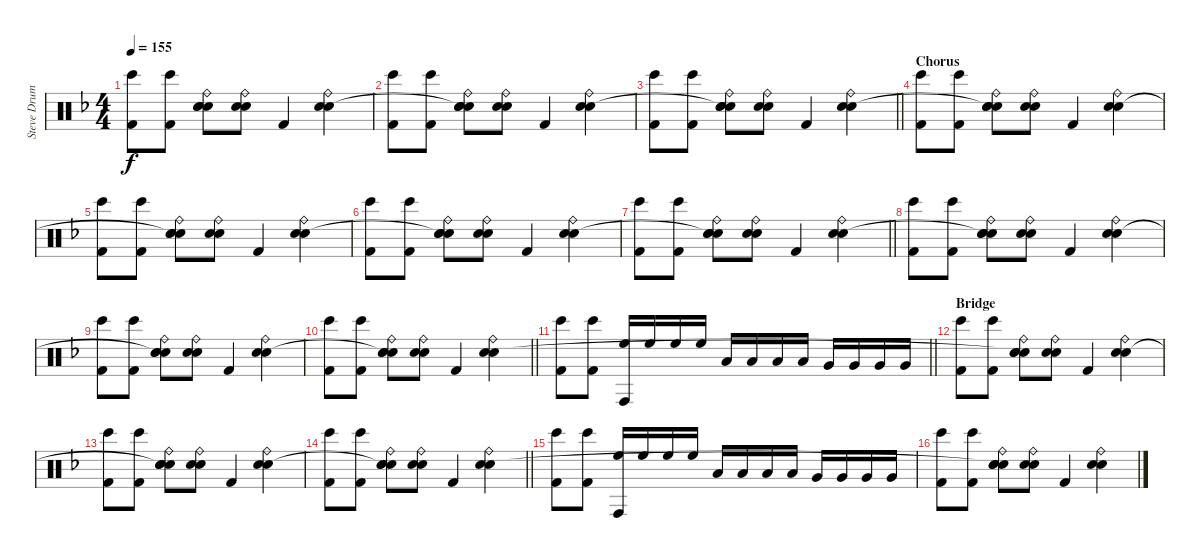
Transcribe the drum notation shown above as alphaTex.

\track ("Steve Drums" "Steve Drum") {instrument percussion}
\staff {score}
\articulation defaults
\ts (4 4)
\tempo 155
\clef neutral
\ks f
("Bongo High (hit)" "Kick (hit) 2").8{dy f} ("Bongo High (hit)" "Kick (hit) 2").8 ("Ride (bell)" "Snare (hit) 2" "Snare (hit)"{t} "Electric Snare (hit)").8 ("Ride (bell)" "Snare (hit) 2" "Electric Snare (hit)").8 "Kick (hit) 2".4 ("Ride (bell)" "Snare (hit) 2" "Electric Snare (hit)").4 |
("Bongo High (hit)" "Kick (hit) 2").8 ("Bongo High (hit)" "Kick (hit) 2").8 ("Ride (bell)" "Snare (hit) 2" "Snare (hit)"{t} "Electric Snare (hit)").8 ("Ride (bell)" "Snare (hit) 2" "Electric Snare (hit)").8 "Kick (hit) 2".4 ("Ride (bell)" "Snare (hit) 2" "Electric Snare (hit)").4 |
\barLineRight lightlight
("Bongo High (hit)" "Kick (hit) 2").8 ("Bongo High (hit)" "Kick (hit) 2").8 ("Ride (bell)" "Snare (hit) 2" "Snare (hit)"{t} "Electric Snare (hit)").8 ("Ride (bell)" "Snare (hit) 2" "Electric Snare (hit)").8 "Kick (hit) 2".4 ("Ride (bell)" "Snare (hit) 2" "Electric Snare (hit)").4 |
\section ("" "Chorus")
("Bongo High (hit)" "Kick (hit) 2").8 ("Bongo High (hit)" "Kick (hit) 2").8 ("Ride (bell)" "Snare (hit) 2" "Snare (hit)"{t} "Electric Snare (hit)").8 ("Ride (bell)" "Snare (hit) 2" "Electric Snare (hit)").8 "Kick (hit) 2".4 ("Ride (bell)" "Snare (hit) 2" "Electric Snare (hit)").4 |
("Bongo High (hit)" "Kick (hit) 2").8 ("Bongo High (hit)" "Kick (hit) 2").8 ("Ride (bell)" "Snare (hit) 2" "Snare (hit)"{t} "Electric Snare (hit)").8 ("Ride (bell)" "Snare (hit) 2" "Electric Snare (hit)").8 "Kick (hit) 2".4 ("Ride (bell)" "Snare (hit) 2" "Electric Snare (hit)").4 |
("Bongo High (hit)" "Kick (hit) 2").8 ("Bongo High (hit)" "Kick (hit) 2").8 ("Ride (bell)" "Snare (hit) 2" "Snare (hit)"{t} "Electric Snare (hit)").8 ("Ride (bell)" "Snare (hit) 2" "Electric Snare (hit)").8 "Kick (hit) 2".4 ("Ride (bell)" "Snare (hit) 2" "Electric Snare (hit)").4 |
\barLineRight lightlight
("Bongo High (hit)" "Kick (hit) 2").8 ("Bongo High (hit)" "Kick (hit) 2").8 ("Ride (bell)" "Snare (hit) 2" "Snare (hit)"{t} "Electric Snare (hit)").8 ("Ride (bell)" "Snare (hit) 2" "Electric Snare (hit)").8 "Kick (hit) 2".4 ("Ride (bell)" "Snare (hit) 2" "Electric Snare (hit)").4 |
("Bongo High (hit)" "Kick (hit) 2").8 ("Bongo High (hit)" "Kick (hit) 2").8 ("Ride (bell)" "Snare (hit) 2" "Snare (hit)"{t} "Electric Snare (hit)").8 ("Ride (bell)" "Snare (hit) 2" "Electric Snare (hit)").8 "Kick (hit) 2".4 ("Ride (bell)" "Snare (hit) 2" "Electric Snare (hit)").4 |
("Bongo High (hit)" "Kick (hit) 2").8 ("Bongo High (hit)" "Kick (hit) 2").8 ("Ride (bell)" "Snare (hit) 2" "Snare (hit)"{t} "Electric Snare (hit)").8 ("Ride (bell)" "Snare (hit) 2" "Electric Snare (hit)").8 "Kick (hit) 2".4 ("Ride (bell)" "Snare (hit) 2" "Electric Snare (hit)").4 |
\barLineRight lightlight
("Bongo High (hit)" "Kick (hit) 2").8 ("Bongo High (hit)" "Kick (hit) 2").8 ("Ride (bell)" "Snare (hit) 2" "Snare (hit)"{t} "Electric Snare (hit)").8 ("Ride (bell)" "Snare (hit) 2" "Electric Snare (hit)").8 "Kick (hit) 2".4 ("Ride (bell)" "Snare (hit) 2" "Electric Snare (hit)").4 |
\barLineRight lightlight
("Bongo High (hit)" "Kick (hit) 2").8 ("Bongo High (hit)" "Kick (hit) 2").8 ("Conga high (hit)" "High Floor Tom (hit)").16 "High Floor Tom (hit)".16 "High Floor Tom (hit)".16 "High Floor Tom (hit)".16 "Low Tom (hit)".16 "Low Tom (hit)".16 "Low Tom (hit)".16 "Low Tom (hit)".16 "Very Low Tom (hit)".16 "Very Low Tom (hit)".16 "Very Low Tom (hit)".16 "Very Low Tom (hit)".16 |
\section ("" "Bridge")
("Bongo High (hit)" "Kick (hit) 2").8 ("Bongo High (hit)" "Kick (hit) 2").8 ("Ride (bell)" "Snare (hit) 2" "Snare (hit)"{t} "Electric Snare (hit)").8 ("Ride (bell)" "Snare (hit) 2" "Electric Snare (hit)").8 "Kick (hit) 2".4 ("Ride (bell)" "Snare (hit) 2" "Electric Snare (hit)").4 |
("Bongo High (hit)" "Kick (hit) 2").8 ("Bongo High (hit)" "Kick (hit) 2").8 ("Ride (bell)" "Snare (hit) 2" "Snare (hit)"{t} "Electric Snare (hit)").8 ("Ride (bell)" "Snare (hit) 2" "Electric Snare (hit)").8 "Kick (hit) 2".4 ("Ride (bell)" "Snare (hit) 2" "Electric Snare (hit)").4 |
\barLineRight lightlight
("Bongo High (hit)" "Kick (hit) 2").8 ("Bongo High (hit)" "Kick (hit) 2").8 ("Ride (bell)" "Snare (hit) 2" "Snare (hit)"{t} "Electric Snare (hit)").8 ("Ride (bell)" "Snare (hit) 2" "Electric Snare (hit)").8 "Kick (hit) 2".4 ("Ride (bell)" "Snare (hit) 2" "Electric Snare (hit)").4 |
("Bongo High (hit)" "Kick (hit) 2").8 ("Bongo High (hit)" "Kick (hit) 2").8 ("Conga high (hit)" "High Floor Tom (hit)").16 "High Floor Tom (hit)".16 "High Floor Tom (hit)".16 "High Floor Tom (hit)".16 "Low Tom (hit)".16 "Low Tom (hit)".16 "Low Tom (hit)".16 "Low Tom (hit)".16 "Very Low Tom (hit)".16 "Very Low Tom (hit)".16 "Very Low Tom (hit)".16 "Very Low Tom (hit)".16 |
("Bongo High (hit)" "Kick (hit) 2").8 ("Bongo High (hit)" "Kick (hit) 2").8 ("Ride (bell)" "Snare (hit) 2" "Snare (hit)"{t} "Electric Snare (hit)").8 ("Ride (bell)" "Snare (hit) 2" "Electric Snare (hit)").8 "Kick (hit) 2".4 ("Ride (bell)" "Snare (hit) 2" "Electric Snare (hit)").4
